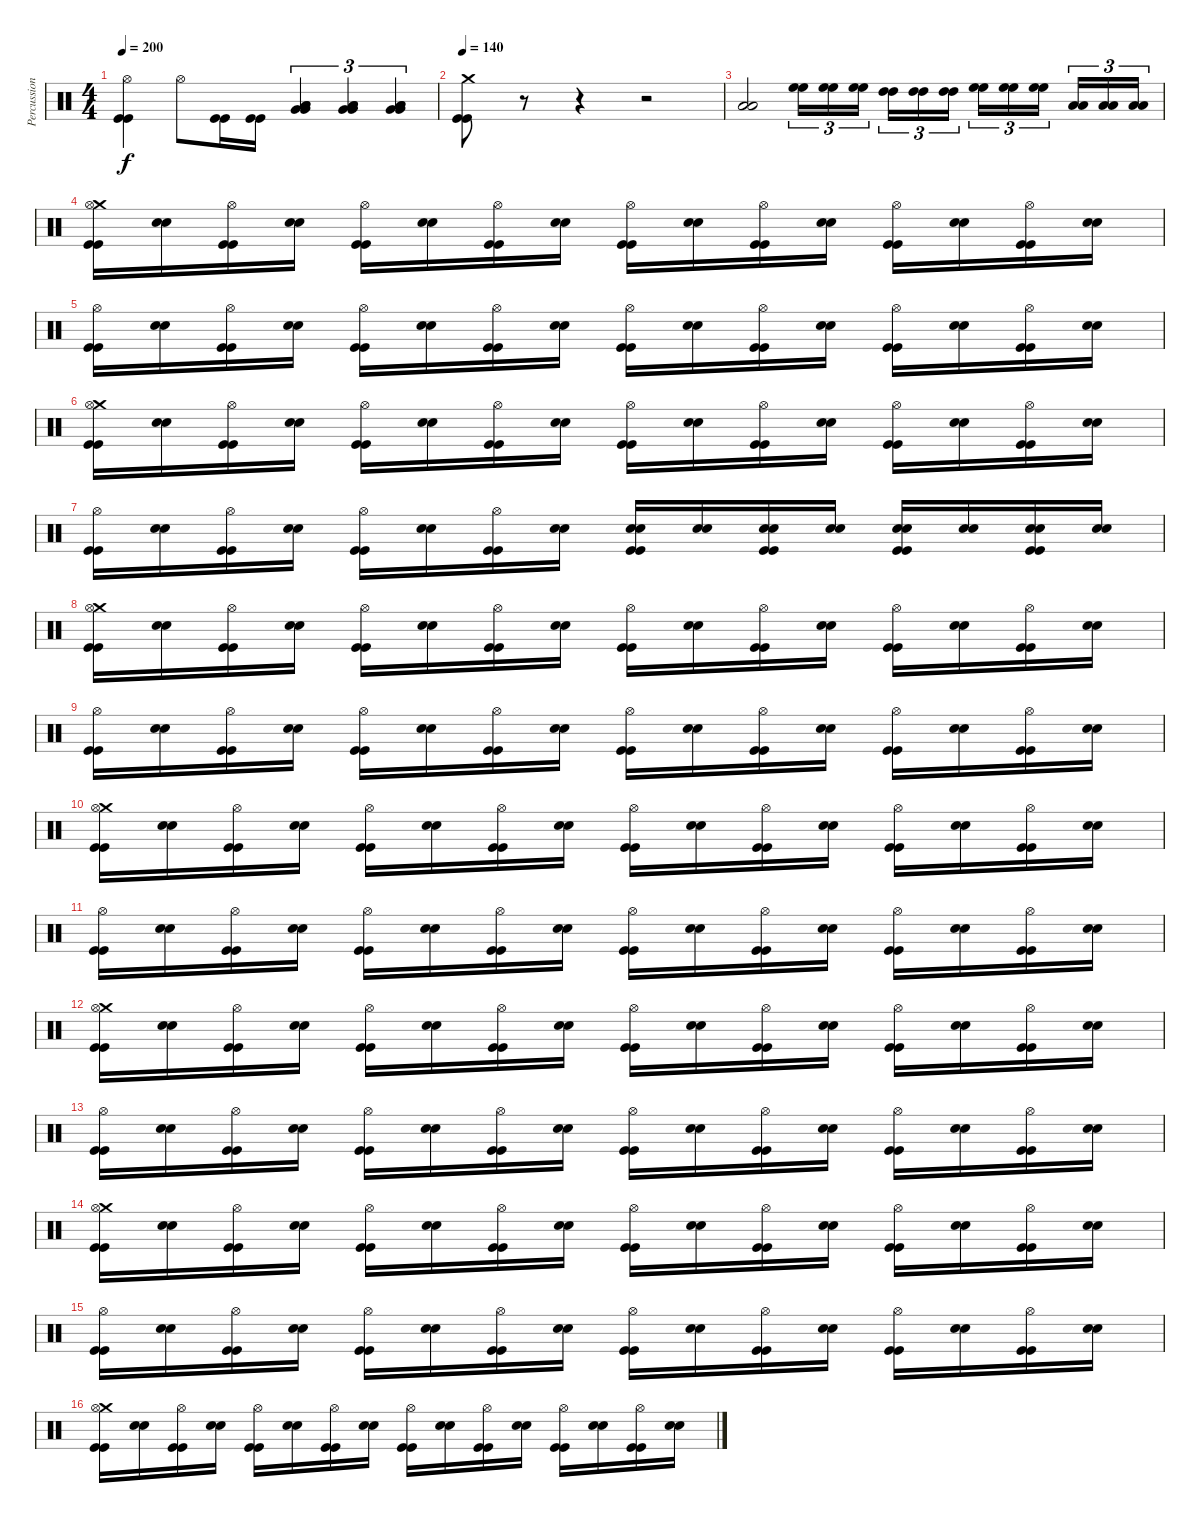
\track ("Percussion" "Percussion") {instrument percussion}
\staff {score}
\articulation defaults
\ts (4 4)
\tempo 200
\clef neutral
\ks c
("Hi-Hat (open)" "Kick (hit)" "Kick (hit)").4{dy f} "Hi-Hat (open)".8 ("Kick (hit)" "Kick (hit)").16 ("Kick (hit)" "Kick (hit)").16 ("Very Low Tom (hit)" "Very Low Tom (hit)" "Low Floor Tom (hit)" "Low Floor Tom (hit)").4{tu (3 2)} ("Very Low Tom (hit)" "Very Low Tom (hit)" "Low Floor Tom (hit)" "Low Floor Tom (hit)").4{tu (3 2)} ("Very Low Tom (hit)" "Very Low Tom (hit)" "Low Floor Tom (hit)" "Low Floor Tom (hit)").4{tu (3 2)} |
\tempo 140
("Crash medium (hit)" "Kick (hit)" "Kick (hit)").8 r.8 r.4 r.2 |
("Low Floor Tom (hit)" "Low Floor Tom (hit)").2 ("High Floor Tom (hit)" "High Floor Tom (hit)").16{tu (3 2)} ("High Floor Tom (hit)" "High Floor Tom (hit)").16{tu (3 2)} ("High Floor Tom (hit)" "High Floor Tom (hit)").16{tu (3 2)} ("High Tom (hit)" "High Tom (hit)").16{tu (3 2)} ("High Tom (hit)" "High Tom (hit)").16{tu (3 2)} ("High Tom (hit)" "High Tom (hit)").16{tu (3 2)} ("High Floor Tom (hit)" "High Floor Tom (hit)").16{tu (3 2)} ("High Floor Tom (hit)" "High Floor Tom (hit)").16{tu (3 2)} ("High Floor Tom (hit)" "High Floor Tom (hit)").16{tu (3 2)} ("Low Tom (hit)" "Low Tom (hit)").16{tu (3 2)} ("Low Tom (hit)" "Low Tom (hit)").16{tu (3 2)} ("Low Tom (hit)" "Low Tom (hit)").16{tu (3 2)} |
("Crash medium (hit)" "Hi-Hat (open)" "Kick (hit)" "Kick (hit)").16 ("Snare (hit) 2" "Snare (hit) 2").16 ("Hi-Hat (open)" "Kick (hit)" "Kick (hit)").16 ("Snare (hit) 2" "Snare (hit) 2").16 ("Hi-Hat (open)" "Kick (hit)" "Kick (hit)").16 ("Snare (hit) 2" "Snare (hit) 2").16 ("Hi-Hat (open)" "Kick (hit)" "Kick (hit)").16 ("Snare (hit) 2" "Snare (hit) 2").16 ("Hi-Hat (open)" "Kick (hit)" "Kick (hit)").16 ("Snare (hit) 2" "Snare (hit) 2").16 ("Hi-Hat (open)" "Kick (hit)" "Kick (hit)").16 ("Snare (hit) 2" "Snare (hit) 2").16 ("Hi-Hat (open)" "Kick (hit)" "Kick (hit)").16 ("Snare (hit) 2" "Snare (hit) 2").16 ("Hi-Hat (open)" "Kick (hit)" "Kick (hit)").16 ("Snare (hit) 2" "Snare (hit) 2").16 |
("Hi-Hat (open)" "Kick (hit)" "Kick (hit)").16 ("Snare (hit) 2" "Snare (hit) 2").16 ("Hi-Hat (open)" "Kick (hit)" "Kick (hit)").16 ("Snare (hit) 2" "Snare (hit) 2").16 ("Hi-Hat (open)" "Kick (hit)" "Kick (hit)").16 ("Snare (hit) 2" "Snare (hit) 2").16 ("Hi-Hat (open)" "Kick (hit)" "Kick (hit)").16 ("Snare (hit) 2" "Snare (hit) 2").16 ("Hi-Hat (open)" "Kick (hit)" "Kick (hit)").16 ("Snare (hit) 2" "Snare (hit) 2").16 ("Hi-Hat (open)" "Kick (hit)" "Kick (hit)").16 ("Snare (hit) 2" "Snare (hit) 2").16 ("Hi-Hat (open)" "Kick (hit)" "Kick (hit)").16 ("Snare (hit) 2" "Snare (hit) 2").16 ("Hi-Hat (open)" "Kick (hit)" "Kick (hit)").16 ("Snare (hit) 2" "Snare (hit) 2").16 |
("Crash medium (hit)" "Hi-Hat (open)" "Kick (hit)" "Kick (hit)").16 ("Snare (hit) 2" "Snare (hit) 2").16 ("Hi-Hat (open)" "Kick (hit)" "Kick (hit)").16 ("Snare (hit) 2" "Snare (hit) 2").16 ("Hi-Hat (open)" "Kick (hit)" "Kick (hit)").16 ("Snare (hit) 2" "Snare (hit) 2").16 ("Hi-Hat (open)" "Kick (hit)" "Kick (hit)").16 ("Snare (hit) 2" "Snare (hit) 2").16 ("Hi-Hat (open)" "Kick (hit)" "Kick (hit)").16 ("Snare (hit) 2" "Snare (hit) 2").16 ("Hi-Hat (open)" "Kick (hit)" "Kick (hit)").16 ("Snare (hit) 2" "Snare (hit) 2").16 ("Hi-Hat (open)" "Kick (hit)" "Kick (hit)").16 ("Snare (hit) 2" "Snare (hit) 2").16 ("Hi-Hat (open)" "Kick (hit)" "Kick (hit)").16 ("Snare (hit) 2" "Snare (hit) 2").16 |
("Hi-Hat (open)" "Kick (hit)" "Kick (hit)").16 ("Snare (hit) 2" "Snare (hit) 2").16 ("Hi-Hat (open)" "Kick (hit)" "Kick (hit)").16 ("Snare (hit) 2" "Snare (hit) 2").16 ("Hi-Hat (open)" "Kick (hit)" "Kick (hit)").16 ("Snare (hit) 2" "Snare (hit) 2").16 ("Hi-Hat (open)" "Kick (hit)" "Kick (hit)").16 ("Snare (hit) 2" "Snare (hit) 2").16 ("Snare (hit) 2" "Snare (hit) 2" "Kick (hit)" "Kick (hit)").16 ("Snare (hit) 2" "Snare (hit) 2").16 ("Snare (hit) 2" "Snare (hit) 2" "Kick (hit)" "Kick (hit)").16 ("Snare (hit) 2" "Snare (hit) 2").16 ("Snare (hit) 2" "Snare (hit) 2" "Kick (hit)" "Kick (hit)").16 ("Snare (hit) 2" "Snare (hit) 2").16 ("Snare (hit) 2" "Snare (hit) 2" "Kick (hit)" "Kick (hit)").16 ("Snare (hit) 2" "Snare (hit) 2").16 |
("Crash medium (hit)" "Hi-Hat (open)" "Kick (hit)" "Kick (hit)").16 ("Snare (hit) 2" "Snare (hit) 2").16 ("Hi-Hat (open)" "Kick (hit)" "Kick (hit)").16 ("Snare (hit) 2" "Snare (hit) 2").16 ("Hi-Hat (open)" "Kick (hit)" "Kick (hit)").16 ("Snare (hit) 2" "Snare (hit) 2").16 ("Hi-Hat (open)" "Kick (hit)" "Kick (hit)").16 ("Snare (hit) 2" "Snare (hit) 2").16 ("Hi-Hat (open)" "Kick (hit)" "Kick (hit)").16 ("Snare (hit) 2" "Snare (hit) 2").16 ("Hi-Hat (open)" "Kick (hit)" "Kick (hit)").16 ("Snare (hit) 2" "Snare (hit) 2").16 ("Hi-Hat (open)" "Kick (hit)" "Kick (hit)").16 ("Snare (hit) 2" "Snare (hit) 2").16 ("Hi-Hat (open)" "Kick (hit)" "Kick (hit)").16 ("Snare (hit) 2" "Snare (hit) 2").16 |
("Hi-Hat (open)" "Kick (hit)" "Kick (hit)").16 ("Snare (hit) 2" "Snare (hit) 2").16 ("Hi-Hat (open)" "Kick (hit)" "Kick (hit)").16 ("Snare (hit) 2" "Snare (hit) 2").16 ("Hi-Hat (open)" "Kick (hit)" "Kick (hit)").16 ("Snare (hit) 2" "Snare (hit) 2").16 ("Hi-Hat (open)" "Kick (hit)" "Kick (hit)").16 ("Snare (hit) 2" "Snare (hit) 2").16 ("Hi-Hat (open)" "Kick (hit)" "Kick (hit)").16 ("Snare (hit) 2" "Snare (hit) 2").16 ("Hi-Hat (open)" "Kick (hit)" "Kick (hit)").16 ("Snare (hit) 2" "Snare (hit) 2").16 ("Hi-Hat (open)" "Kick (hit)" "Kick (hit)").16 ("Snare (hit) 2" "Snare (hit) 2").16 ("Hi-Hat (open)" "Kick (hit)" "Kick (hit)").16 ("Snare (hit) 2" "Snare (hit) 2").16 |
("Crash medium (hit)" "Hi-Hat (open)" "Kick (hit)" "Kick (hit)").16 ("Snare (hit) 2" "Snare (hit) 2").16 ("Hi-Hat (open)" "Kick (hit)" "Kick (hit)").16 ("Snare (hit) 2" "Snare (hit) 2").16 ("Hi-Hat (open)" "Kick (hit)" "Kick (hit)").16 ("Snare (hit) 2" "Snare (hit) 2").16 ("Hi-Hat (open)" "Kick (hit)" "Kick (hit)").16 ("Snare (hit) 2" "Snare (hit) 2").16 ("Hi-Hat (open)" "Kick (hit)" "Kick (hit)").16 ("Snare (hit) 2" "Snare (hit) 2").16 ("Hi-Hat (open)" "Kick (hit)" "Kick (hit)").16 ("Snare (hit) 2" "Snare (hit) 2").16 ("Hi-Hat (open)" "Kick (hit)" "Kick (hit)").16 ("Snare (hit) 2" "Snare (hit) 2").16 ("Hi-Hat (open)" "Kick (hit)" "Kick (hit)").16 ("Snare (hit) 2" "Snare (hit) 2").16 |
("Hi-Hat (open)" "Kick (hit)" "Kick (hit)").16 ("Snare (hit) 2" "Snare (hit) 2").16 ("Hi-Hat (open)" "Kick (hit)" "Kick (hit)").16 ("Snare (hit) 2" "Snare (hit) 2").16 ("Hi-Hat (open)" "Kick (hit)" "Kick (hit)").16 ("Snare (hit) 2" "Snare (hit) 2").16 ("Hi-Hat (open)" "Kick (hit)" "Kick (hit)").16 ("Snare (hit) 2" "Snare (hit) 2").16 ("Hi-Hat (open)" "Kick (hit)" "Kick (hit)").16 ("Snare (hit) 2" "Snare (hit) 2").16 ("Hi-Hat (open)" "Kick (hit)" "Kick (hit)").16 ("Snare (hit) 2" "Snare (hit) 2").16 ("Hi-Hat (open)" "Kick (hit)" "Kick (hit)").16 ("Snare (hit) 2" "Snare (hit) 2").16 ("Hi-Hat (open)" "Kick (hit)" "Kick (hit)").16 ("Snare (hit) 2" "Snare (hit) 2").16 |
("Crash medium (hit)" "Hi-Hat (open)" "Kick (hit)" "Kick (hit)").16 ("Snare (hit) 2" "Snare (hit) 2").16 ("Hi-Hat (open)" "Kick (hit)" "Kick (hit)").16 ("Snare (hit) 2" "Snare (hit) 2").16 ("Hi-Hat (open)" "Kick (hit)" "Kick (hit)").16 ("Snare (hit) 2" "Snare (hit) 2").16 ("Hi-Hat (open)" "Kick (hit)" "Kick (hit)").16 ("Snare (hit) 2" "Snare (hit) 2").16 ("Hi-Hat (open)" "Kick (hit)" "Kick (hit)").16 ("Snare (hit) 2" "Snare (hit) 2").16 ("Hi-Hat (open)" "Kick (hit)" "Kick (hit)").16 ("Snare (hit) 2" "Snare (hit) 2").16 ("Hi-Hat (open)" "Kick (hit)" "Kick (hit)").16 ("Snare (hit) 2" "Snare (hit) 2").16 ("Hi-Hat (open)" "Kick (hit)" "Kick (hit)").16 ("Snare (hit) 2" "Snare (hit) 2").16 |
("Hi-Hat (open)" "Kick (hit)" "Kick (hit)").16 ("Snare (hit) 2" "Snare (hit) 2").16 ("Hi-Hat (open)" "Kick (hit)" "Kick (hit)").16 ("Snare (hit) 2" "Snare (hit) 2").16 ("Hi-Hat (open)" "Kick (hit)" "Kick (hit)").16 ("Snare (hit) 2" "Snare (hit) 2").16 ("Hi-Hat (open)" "Kick (hit)" "Kick (hit)").16 ("Snare (hit) 2" "Snare (hit) 2").16 ("Hi-Hat (open)" "Kick (hit)" "Kick (hit)").16 ("Snare (hit) 2" "Snare (hit) 2").16 ("Hi-Hat (open)" "Kick (hit)" "Kick (hit)").16 ("Snare (hit) 2" "Snare (hit) 2").16 ("Hi-Hat (open)" "Kick (hit)" "Kick (hit)").16 ("Snare (hit) 2" "Snare (hit) 2").16 ("Hi-Hat (open)" "Kick (hit)" "Kick (hit)").16 ("Snare (hit) 2" "Snare (hit) 2").16 |
("Crash medium (hit)" "Hi-Hat (open)" "Kick (hit)" "Kick (hit)").16 ("Snare (hit) 2" "Snare (hit) 2").16 ("Hi-Hat (open)" "Kick (hit)" "Kick (hit)").16 ("Snare (hit) 2" "Snare (hit) 2").16 ("Hi-Hat (open)" "Kick (hit)" "Kick (hit)").16 ("Snare (hit) 2" "Snare (hit) 2").16 ("Hi-Hat (open)" "Kick (hit)" "Kick (hit)").16 ("Snare (hit) 2" "Snare (hit) 2").16 ("Hi-Hat (open)" "Kick (hit)" "Kick (hit)").16 ("Snare (hit) 2" "Snare (hit) 2").16 ("Hi-Hat (open)" "Kick (hit)" "Kick (hit)").16 ("Snare (hit) 2" "Snare (hit) 2").16 ("Hi-Hat (open)" "Kick (hit)" "Kick (hit)").16 ("Snare (hit) 2" "Snare (hit) 2").16 ("Hi-Hat (open)" "Kick (hit)" "Kick (hit)").16 ("Snare (hit) 2" "Snare (hit) 2").16 |
("Hi-Hat (open)" "Kick (hit)" "Kick (hit)").16 ("Snare (hit) 2" "Snare (hit) 2").16 ("Hi-Hat (open)" "Kick (hit)" "Kick (hit)").16 ("Snare (hit) 2" "Snare (hit) 2").16 ("Hi-Hat (open)" "Kick (hit)" "Kick (hit)").16 ("Snare (hit) 2" "Snare (hit) 2").16 ("Hi-Hat (open)" "Kick (hit)" "Kick (hit)").16 ("Snare (hit) 2" "Snare (hit) 2").16 ("Hi-Hat (open)" "Kick (hit)" "Kick (hit)").16 ("Snare (hit) 2" "Snare (hit) 2").16 ("Hi-Hat (open)" "Kick (hit)" "Kick (hit)").16 ("Snare (hit) 2" "Snare (hit) 2").16 ("Hi-Hat (open)" "Kick (hit)" "Kick (hit)").16 ("Snare (hit) 2" "Snare (hit) 2").16 ("Hi-Hat (open)" "Kick (hit)" "Kick (hit)").16 ("Snare (hit) 2" "Snare (hit) 2").16 |
("Crash medium (hit)" "Hi-Hat (open)" "Kick (hit)" "Kick (hit)").16 ("Snare (hit) 2" "Snare (hit) 2").16 ("Hi-Hat (open)" "Kick (hit)" "Kick (hit)").16 ("Snare (hit) 2" "Snare (hit) 2").16 ("Hi-Hat (open)" "Kick (hit)" "Kick (hit)").16 ("Snare (hit) 2" "Snare (hit) 2").16 ("Hi-Hat (open)" "Kick (hit)" "Kick (hit)").16 ("Snare (hit) 2" "Snare (hit) 2").16 ("Hi-Hat (open)" "Kick (hit)" "Kick (hit)").16 ("Snare (hit) 2" "Snare (hit) 2").16 ("Hi-Hat (open)" "Kick (hit)" "Kick (hit)").16 ("Snare (hit) 2" "Snare (hit) 2").16 ("Hi-Hat (open)" "Kick (hit)" "Kick (hit)").16 ("Snare (hit) 2" "Snare (hit) 2").16 ("Hi-Hat (open)" "Kick (hit)" "Kick (hit)").16 ("Snare (hit) 2" "Snare (hit) 2").16
